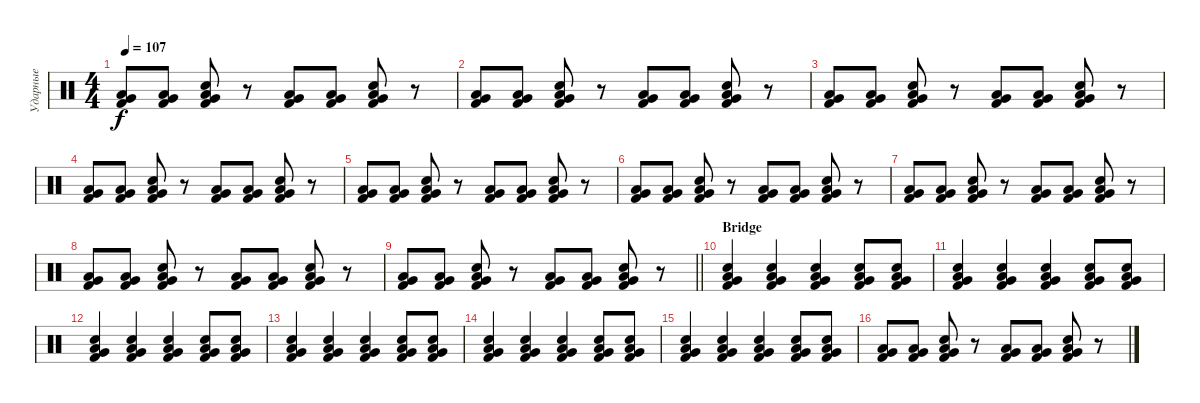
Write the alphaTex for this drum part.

\track ("Ударные" "Ударные") {instrument percussion}
\staff {score}
\articulation defaults
\ts (4 4)
\tempo 107
\clef neutral
\ks c
("Kick (hit) 2" "Low Tom (hit)" "Very Low Tom (hit)").8{dy f} ("Kick (hit) 2" "Low Tom (hit)" "Very Low Tom (hit)").8 ("Snare (hit) 2" "Low Tom (hit)" "Very Low Tom (hit)" "Kick (hit) 2").8 r.8 ("Kick (hit) 2" "Low Tom (hit)" "Very Low Tom (hit)").8 ("Kick (hit) 2" "Low Tom (hit)" "Very Low Tom (hit)").8 ("Snare (hit) 2" "Low Tom (hit)" "Very Low Tom (hit)" "Kick (hit) 2").8 r.8 |
("Kick (hit) 2" "Low Tom (hit)" "Very Low Tom (hit)").8 ("Kick (hit) 2" "Low Tom (hit)" "Very Low Tom (hit)").8 ("Snare (hit) 2" "Low Tom (hit)" "Very Low Tom (hit)" "Kick (hit) 2").8 r.8 ("Kick (hit) 2" "Low Tom (hit)" "Very Low Tom (hit)").8 ("Kick (hit) 2" "Low Tom (hit)" "Very Low Tom (hit)").8 ("Snare (hit) 2" "Low Tom (hit)" "Very Low Tom (hit)" "Kick (hit) 2").8 r.8 |
("Kick (hit) 2" "Low Tom (hit)" "Very Low Tom (hit)").8 ("Kick (hit) 2" "Low Tom (hit)" "Very Low Tom (hit)").8 ("Snare (hit) 2" "Low Tom (hit)" "Very Low Tom (hit)" "Kick (hit) 2").8 r.8 ("Kick (hit) 2" "Low Tom (hit)" "Very Low Tom (hit)").8 ("Kick (hit) 2" "Low Tom (hit)" "Very Low Tom (hit)").8 ("Snare (hit) 2" "Low Tom (hit)" "Very Low Tom (hit)" "Kick (hit) 2").8 r.8 |
("Kick (hit) 2" "Low Tom (hit)" "Very Low Tom (hit)").8 ("Kick (hit) 2" "Low Tom (hit)" "Very Low Tom (hit)").8 ("Snare (hit) 2" "Low Tom (hit)" "Very Low Tom (hit)" "Kick (hit) 2").8 r.8 ("Kick (hit) 2" "Low Tom (hit)" "Very Low Tom (hit)").8 ("Kick (hit) 2" "Low Tom (hit)" "Very Low Tom (hit)").8 ("Snare (hit) 2" "Low Tom (hit)" "Very Low Tom (hit)" "Kick (hit) 2").8 r.8 |
("Kick (hit) 2" "Low Tom (hit)" "Very Low Tom (hit)").8 ("Kick (hit) 2" "Low Tom (hit)" "Very Low Tom (hit)").8 ("Snare (hit) 2" "Low Tom (hit)" "Very Low Tom (hit)" "Kick (hit) 2").8 r.8 ("Kick (hit) 2" "Low Tom (hit)" "Very Low Tom (hit)").8 ("Kick (hit) 2" "Low Tom (hit)" "Very Low Tom (hit)").8 ("Snare (hit) 2" "Low Tom (hit)" "Very Low Tom (hit)" "Kick (hit) 2").8 r.8 |
("Kick (hit) 2" "Low Tom (hit)" "Very Low Tom (hit)").8 ("Kick (hit) 2" "Low Tom (hit)" "Very Low Tom (hit)").8 ("Snare (hit) 2" "Low Tom (hit)" "Very Low Tom (hit)" "Kick (hit) 2").8 r.8 ("Kick (hit) 2" "Low Tom (hit)" "Very Low Tom (hit)").8 ("Kick (hit) 2" "Low Tom (hit)" "Very Low Tom (hit)").8 ("Snare (hit) 2" "Low Tom (hit)" "Very Low Tom (hit)" "Kick (hit) 2").8 r.8 |
("Kick (hit) 2" "Low Tom (hit)" "Very Low Tom (hit)").8 ("Kick (hit) 2" "Low Tom (hit)" "Very Low Tom (hit)").8 ("Snare (hit) 2" "Low Tom (hit)" "Very Low Tom (hit)" "Kick (hit) 2").8 r.8 ("Kick (hit) 2" "Low Tom (hit)" "Very Low Tom (hit)").8 ("Kick (hit) 2" "Low Tom (hit)" "Very Low Tom (hit)").8 ("Snare (hit) 2" "Low Tom (hit)" "Very Low Tom (hit)" "Kick (hit) 2").8 r.8 |
("Kick (hit) 2" "Low Tom (hit)" "Very Low Tom (hit)").8 ("Kick (hit) 2" "Low Tom (hit)" "Very Low Tom (hit)").8 ("Snare (hit) 2" "Low Tom (hit)" "Very Low Tom (hit)" "Kick (hit) 2").8 r.8 ("Kick (hit) 2" "Low Tom (hit)" "Very Low Tom (hit)").8 ("Kick (hit) 2" "Low Tom (hit)" "Very Low Tom (hit)").8 ("Snare (hit) 2" "Low Tom (hit)" "Very Low Tom (hit)" "Kick (hit) 2").8 r.8 |
\barLineRight lightlight
("Kick (hit) 2" "Low Tom (hit)" "Very Low Tom (hit)").8 ("Kick (hit) 2" "Low Tom (hit)" "Very Low Tom (hit)").8 ("Snare (hit) 2" "Low Tom (hit)" "Very Low Tom (hit)" "Kick (hit) 2").8 r.8 ("Kick (hit) 2" "Low Tom (hit)" "Very Low Tom (hit)").8 ("Kick (hit) 2" "Low Tom (hit)" "Very Low Tom (hit)").8 ("Snare (hit) 2" "Low Tom (hit)" "Very Low Tom (hit)" "Kick (hit) 2").8 r.8 |
\section ("" "Bridge")
("Snare (hit) 2" "Low Tom (hit)" "Very Low Tom (hit)" "Kick (hit) 2").4 ("Snare (hit) 2" "Low Tom (hit)" "Very Low Tom (hit)" "Kick (hit) 2").4 ("Snare (hit) 2" "Low Tom (hit)" "Very Low Tom (hit)" "Kick (hit) 2").4 ("Snare (hit) 2" "Low Tom (hit)" "Very Low Tom (hit)" "Kick (hit) 2").8 ("Snare (hit) 2" "Low Tom (hit)" "Very Low Tom (hit)" "Kick (hit) 2").8 |
("Snare (hit) 2" "Low Tom (hit)" "Very Low Tom (hit)" "Kick (hit) 2").4 ("Snare (hit) 2" "Low Tom (hit)" "Very Low Tom (hit)" "Kick (hit) 2").4 ("Snare (hit) 2" "Low Tom (hit)" "Very Low Tom (hit)" "Kick (hit) 2").4 ("Snare (hit) 2" "Low Tom (hit)" "Very Low Tom (hit)" "Kick (hit) 2").8 ("Snare (hit) 2" "Low Tom (hit)" "Very Low Tom (hit)" "Kick (hit) 2").8 |
("Snare (hit) 2" "Low Tom (hit)" "Very Low Tom (hit)" "Kick (hit) 2").4 ("Snare (hit) 2" "Low Tom (hit)" "Very Low Tom (hit)" "Kick (hit) 2").4 ("Snare (hit) 2" "Low Tom (hit)" "Very Low Tom (hit)" "Kick (hit) 2").4 ("Snare (hit) 2" "Low Tom (hit)" "Very Low Tom (hit)" "Kick (hit) 2").8 ("Snare (hit) 2" "Low Tom (hit)" "Very Low Tom (hit)" "Kick (hit) 2").8 |
("Snare (hit) 2" "Low Tom (hit)" "Very Low Tom (hit)" "Kick (hit) 2").4 ("Snare (hit) 2" "Low Tom (hit)" "Very Low Tom (hit)" "Kick (hit) 2").4 ("Snare (hit) 2" "Low Tom (hit)" "Very Low Tom (hit)" "Kick (hit) 2").4 ("Snare (hit) 2" "Low Tom (hit)" "Very Low Tom (hit)" "Kick (hit) 2").8 ("Snare (hit) 2" "Low Tom (hit)" "Very Low Tom (hit)" "Kick (hit) 2").8 |
("Snare (hit) 2" "Low Tom (hit)" "Very Low Tom (hit)" "Kick (hit) 2").4 ("Snare (hit) 2" "Low Tom (hit)" "Very Low Tom (hit)" "Kick (hit) 2").4 ("Snare (hit) 2" "Low Tom (hit)" "Very Low Tom (hit)" "Kick (hit) 2").4 ("Snare (hit) 2" "Low Tom (hit)" "Very Low Tom (hit)" "Kick (hit) 2").8 ("Snare (hit) 2" "Low Tom (hit)" "Very Low Tom (hit)" "Kick (hit) 2").8 |
("Snare (hit) 2" "Low Tom (hit)" "Very Low Tom (hit)" "Kick (hit) 2").4 ("Snare (hit) 2" "Low Tom (hit)" "Very Low Tom (hit)" "Kick (hit) 2").4 ("Snare (hit) 2" "Low Tom (hit)" "Very Low Tom (hit)" "Kick (hit) 2").4 ("Snare (hit) 2" "Low Tom (hit)" "Very Low Tom (hit)" "Kick (hit) 2").8 ("Snare (hit) 2" "Low Tom (hit)" "Very Low Tom (hit)" "Kick (hit) 2").8 |
("Kick (hit) 2" "Low Tom (hit)" "Very Low Tom (hit)").8 ("Kick (hit) 2" "Low Tom (hit)" "Very Low Tom (hit)").8 ("Snare (hit) 2" "Low Tom (hit)" "Very Low Tom (hit)" "Kick (hit) 2").8 r.8 ("Kick (hit) 2" "Low Tom (hit)" "Very Low Tom (hit)").8 ("Kick (hit) 2" "Low Tom (hit)" "Very Low Tom (hit)").8 ("Snare (hit) 2" "Low Tom (hit)" "Very Low Tom (hit)" "Kick (hit) 2").8 r.8
